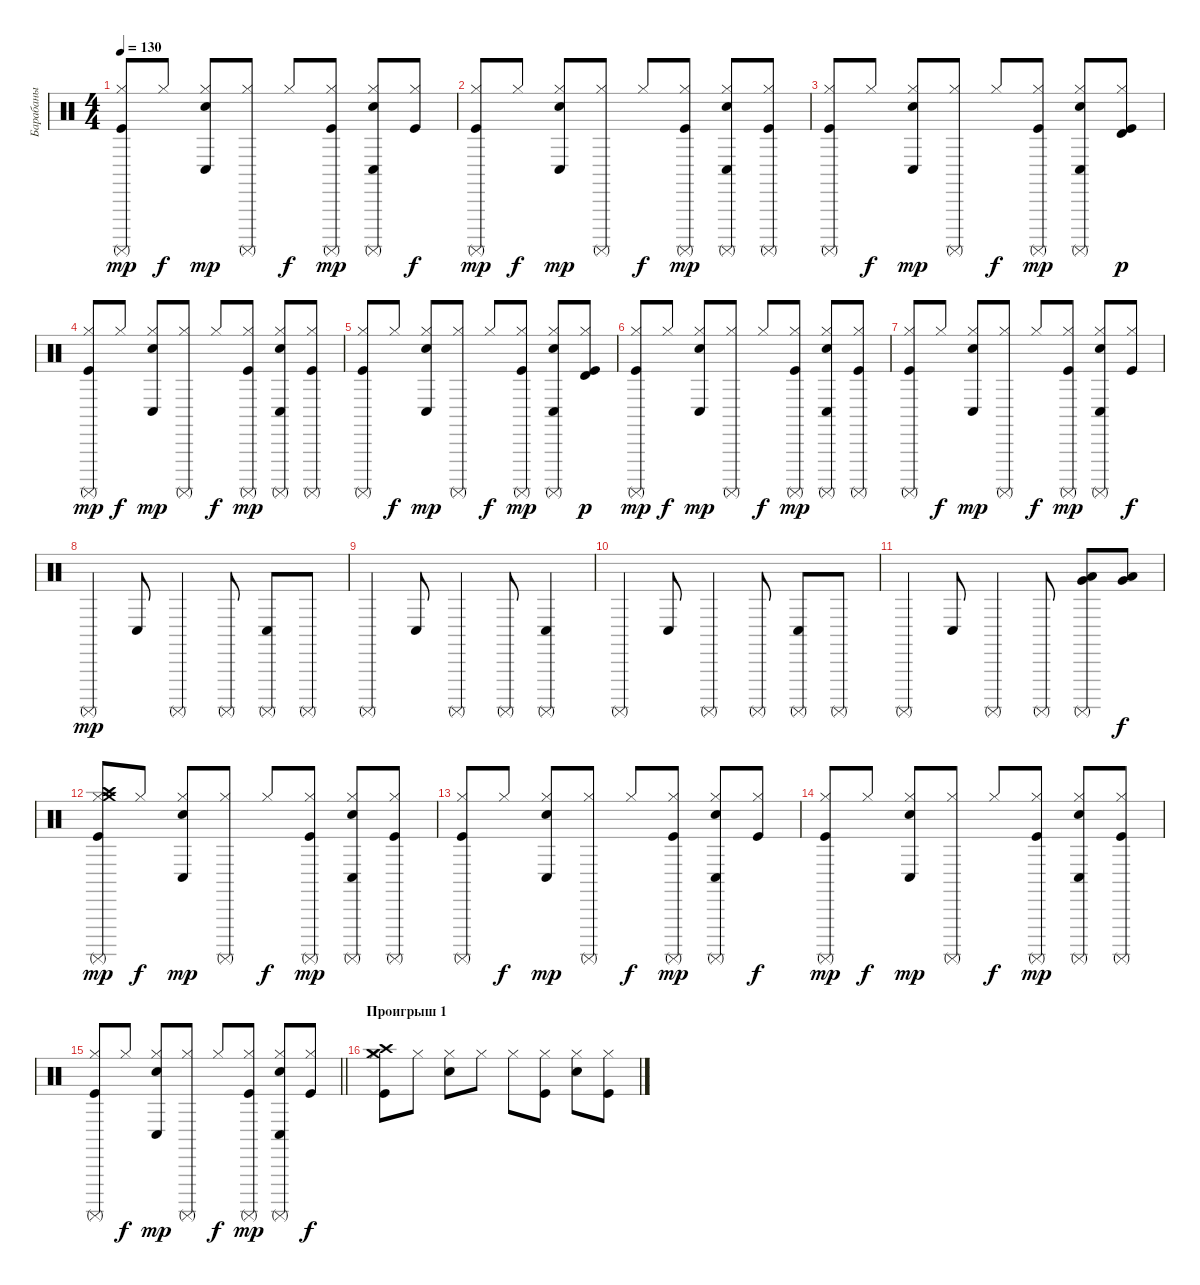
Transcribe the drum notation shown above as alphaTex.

\track ("Барабаны" "Барабаны") {instrument percussion}
\staff {score}
\articulation defaults
\ts (4 4)
\tempo 130
\clef neutral
\ks c
("Surdo (mute)" "Kick (hit)" "Hi-Hat (closed)").8{dy mp} "Hi-Hat (closed)".8{dy f} ("Snare (hit) 2" "Hi-Hat (closed)" "Conga low (hit)").8{dy mp} ("Surdo (mute)" "Hi-Hat (closed)").8 "Hi-Hat (closed)".8{dy f} ("Surdo (mute)" "Kick (hit)" "Hi-Hat (closed)").8{dy mp} ("Surdo (mute)" "Snare (hit) 2" "Hi-Hat (closed)" "Conga low (hit)").8 ("Kick (hit)" "Hi-Hat (closed)").8{dy f} |
("Surdo (mute)" "Kick (hit)" "Hi-Hat (closed)").8{dy mp} "Hi-Hat (closed)".8{dy f} ("Snare (hit) 2" "Hi-Hat (closed)" "Conga low (hit)").8{dy mp} ("Surdo (mute)" "Hi-Hat (closed)").8 "Hi-Hat (closed)".8{dy f} ("Surdo (mute)" "Kick (hit)" "Hi-Hat (closed)").8{dy mp} ("Surdo (mute)" "Snare (hit) 2" "Hi-Hat (closed)" "Conga low (hit)").8 ("Surdo (mute)" "Kick (hit)" "Hi-Hat (closed)").8 |
("Surdo (mute)" "Kick (hit)" "Hi-Hat (closed)").8 "Hi-Hat (closed)".8{dy f} ("Snare (hit) 2" "Hi-Hat (closed)" "Conga low (hit)").8{dy mp} ("Surdo (mute)" "Hi-Hat (closed)").8 "Hi-Hat (closed)".8{dy f} ("Surdo (mute)" "Kick (hit)" "Hi-Hat (closed)").8{dy mp} ("Surdo (mute)" "Snare (hit) 2" "Hi-Hat (closed)" "Conga low (hit)").8 ("Kick (hit)" "Hi-Hat (closed)" "Timbale high (hit)").8{dy p} |
("Surdo (mute)" "Kick (hit)" "Hi-Hat (closed)").8{dy mp} "Hi-Hat (closed)".8{dy f} ("Snare (hit) 2" "Hi-Hat (closed)" "Conga low (hit)").8{dy mp} ("Surdo (mute)" "Hi-Hat (closed)").8 "Hi-Hat (closed)".8{dy f} ("Surdo (mute)" "Kick (hit)" "Hi-Hat (closed)").8{dy mp} ("Surdo (mute)" "Snare (hit) 2" "Hi-Hat (closed)" "Conga low (hit)").8 ("Surdo (mute)" "Kick (hit)" "Hi-Hat (closed)").8 |
("Surdo (mute)" "Kick (hit)" "Hi-Hat (closed)").8 "Hi-Hat (closed)".8{dy f} ("Snare (hit) 2" "Hi-Hat (closed)" "Conga low (hit)").8{dy mp} ("Surdo (mute)" "Hi-Hat (closed)").8 "Hi-Hat (closed)".8{dy f} ("Surdo (mute)" "Kick (hit)" "Hi-Hat (closed)").8{dy mp} ("Surdo (mute)" "Snare (hit) 2" "Hi-Hat (closed)" "Conga low (hit)").8 ("Kick (hit)" "Hi-Hat (closed)" "Timbale high (hit)").8{dy p} |
("Surdo (mute)" "Kick (hit)" "Hi-Hat (closed)").8{dy mp} "Hi-Hat (closed)".8{dy f} ("Snare (hit) 2" "Hi-Hat (closed)" "Conga low (hit)").8{dy mp} ("Surdo (mute)" "Hi-Hat (closed)").8 "Hi-Hat (closed)".8{dy f} ("Surdo (mute)" "Kick (hit)" "Hi-Hat (closed)").8{dy mp} ("Surdo (mute)" "Snare (hit) 2" "Hi-Hat (closed)" "Conga low (hit)").8 ("Surdo (mute)" "Kick (hit)" "Hi-Hat (closed)").8 |
("Surdo (mute)" "Kick (hit)" "Hi-Hat (closed)").8 "Hi-Hat (closed)".8{dy f} ("Snare (hit) 2" "Hi-Hat (closed)" "Conga low (hit)").8{dy mp} ("Surdo (mute)" "Hi-Hat (closed)").8 "Hi-Hat (closed)".8{dy f} ("Surdo (mute)" "Kick (hit)" "Hi-Hat (closed)").8{dy mp} ("Surdo (mute)" "Snare (hit) 2" "Hi-Hat (closed)" "Conga low (hit)").8 ("Kick (hit)" "Hi-Hat (closed)").8{dy f} |
"Surdo (mute)".4{dy mp} "Conga low (hit)".8 "Surdo (mute)".4 "Surdo (mute)".8 ("Surdo (mute)" "Conga low (hit)").8 "Surdo (mute)".8 |
"Surdo (mute)".4 "Conga low (hit)".8 "Surdo (mute)".4 "Surdo (mute)".8 ("Surdo (mute)" "Conga low (hit)").4 |
"Surdo (mute)".4 "Conga low (hit)".8 "Surdo (mute)".4 "Surdo (mute)".8 ("Surdo (mute)" "Conga low (hit)").8 "Surdo (mute)".8 |
"Surdo (mute)".4 "Conga low (hit)".8 "Surdo (mute)".4 "Surdo (mute)".8 ("Surdo (mute)" "Low Floor Tom (hit)" "Very Low Tom (hit)").8 ("Low Floor Tom (hit)" "Very Low Tom (hit)").8{dy f} |
("Surdo (mute)" "Kick (hit)" "Hi-Hat (closed)" "Crash high (hit)" "Crash medium (hit)").8{dy mp} "Hi-Hat (closed)".8{dy f} ("Snare (hit) 2" "Hi-Hat (closed)" "Conga low (hit)").8{dy mp} ("Surdo (mute)" "Hi-Hat (closed)").8 "Hi-Hat (closed)".8{dy f} ("Surdo (mute)" "Kick (hit)" "Hi-Hat (closed)").8{dy mp} ("Surdo (mute)" "Snare (hit) 2" "Hi-Hat (closed)" "Conga low (hit)").8 ("Surdo (mute)" "Kick (hit)" "Hi-Hat (closed)").8 |
("Surdo (mute)" "Kick (hit)" "Hi-Hat (closed)").8 "Hi-Hat (closed)".8{dy f} ("Snare (hit) 2" "Hi-Hat (closed)" "Conga low (hit)").8{dy mp} ("Surdo (mute)" "Hi-Hat (closed)").8 "Hi-Hat (closed)".8{dy f} ("Surdo (mute)" "Kick (hit)" "Hi-Hat (closed)").8{dy mp} ("Surdo (mute)" "Snare (hit) 2" "Hi-Hat (closed)" "Conga low (hit)").8 ("Kick (hit)" "Hi-Hat (closed)").8{dy f} |
("Surdo (mute)" "Kick (hit)" "Hi-Hat (closed)").8{dy mp} "Hi-Hat (closed)".8{dy f} ("Snare (hit) 2" "Hi-Hat (closed)" "Conga low (hit)").8{dy mp} ("Surdo (mute)" "Hi-Hat (closed)").8 "Hi-Hat (closed)".8{dy f} ("Surdo (mute)" "Kick (hit)" "Hi-Hat (closed)").8{dy mp} ("Surdo (mute)" "Snare (hit) 2" "Hi-Hat (closed)" "Conga low (hit)").8 ("Surdo (mute)" "Kick (hit)" "Hi-Hat (closed)").8 |
\barLineRight lightlight
("Surdo (mute)" "Kick (hit)" "Hi-Hat (closed)").8 "Hi-Hat (closed)".8{dy f} ("Snare (hit) 2" "Hi-Hat (closed)" "Conga low (hit)").8{dy mp} ("Surdo (mute)" "Hi-Hat (closed)").8 "Hi-Hat (closed)".8{dy f} ("Surdo (mute)" "Kick (hit)" "Hi-Hat (closed)").8{dy mp} ("Surdo (mute)" "Snare (hit) 2" "Hi-Hat (closed)" "Conga low (hit)").8 ("Kick (hit)" "Hi-Hat (closed)").8{dy f} |
\section ("" "Проигрыш 1")
("Kick (hit)" "Hi-Hat (closed)" "Crash high (hit)" "Crash medium (hit)").8 "Hi-Hat (closed)".8 ("Snare (hit) 2" "Hi-Hat (closed)").8 "Hi-Hat (closed)".8 "Hi-Hat (closed)".8 ("Kick (hit)" "Hi-Hat (closed)").8 ("Snare (hit) 2" "Hi-Hat (closed)").8 ("Kick (hit)" "Hi-Hat (closed)").8
